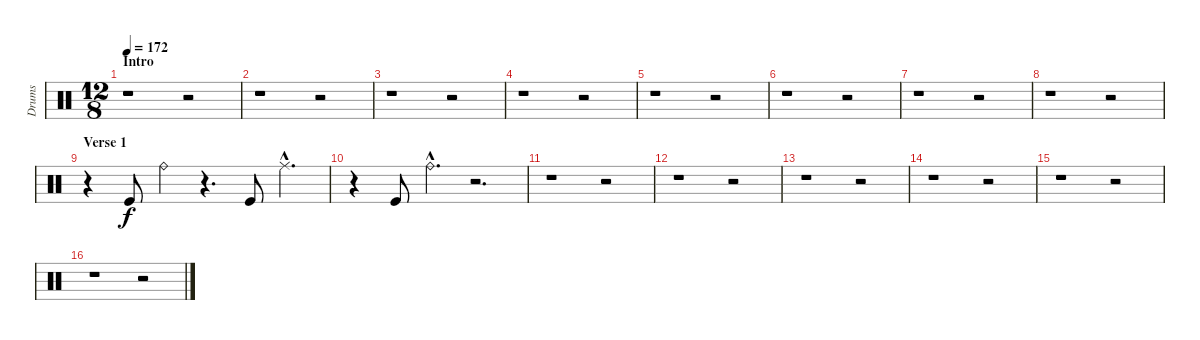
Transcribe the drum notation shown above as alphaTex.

\track ("Drums" "Drums") {instrument percussion}
\staff {score}
\articulation defaults
\ts (12 8)
\section ("" "Intro")
\tempo 172
\clef neutral
\ks c
r.1{dy f} r.2 |
r.1 r.2 |
r.1 r.2 |
r.1 r.2 |
r.1 r.2 |
r.1 r.2 |
r.1 r.2 |
r.1 r.2 |
\section ("" "Verse 1")
r.4 "Kick (hit)".8{balance 4} "Ride (bell)".4{balance 0} r.4{d} "Kick (hit)".8{balance 4} "Ride (middle)"{hac}.4{d balance 16} |
r.4 "Kick (hit)".8{balance 4} "Ride (bell)"{hac}.4{d balance 0} r.2{d} |
r.1 r.2 |
r.1 r.2 |
r.1 r.2 |
r.1 r.2 |
r.1 r.2 |
r.1 r.2
